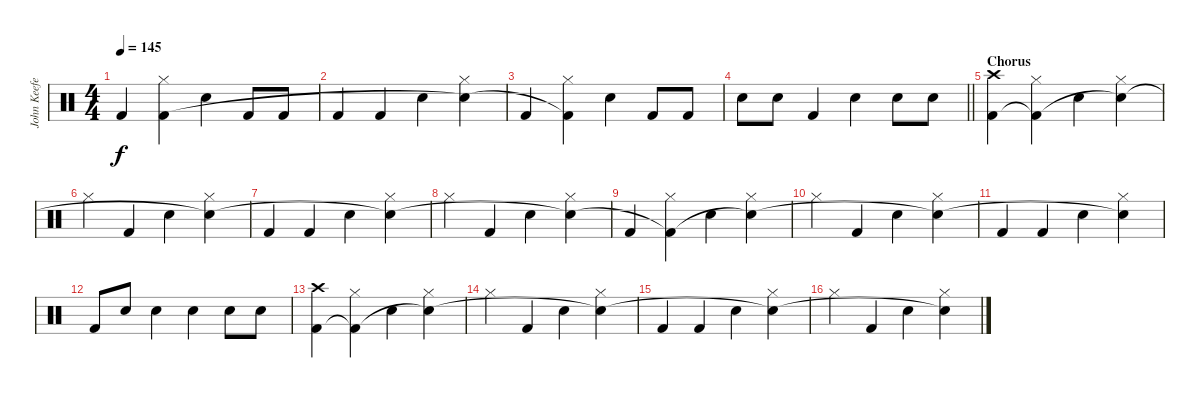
\track ("John Keefe (Percussion)" "John Keefe") {instrument percussion}
\staff {score}
\articulation defaults
\ts (4 4)
\tempo 145
\clef neutral
\ks c "Kick (hit) 2".4{dy f}
("Hi-Hat (closed)" "Kick (hit) 2"{t}).4 "Snare (hit) 2".4 "Kick (hit) 2".8 "Kick (hit) 2".8 |
"Kick (hit) 2".4 "Kick (hit) 2".4 "Snare (hit) 2".4 ("Hi-Hat (closed)" "Snare (hit) 2"{t}).4 |
"Kick (hit) 2".4 ("Hi-Hat (closed)" "Kick (hit) 2"{t}).4 "Snare (hit) 2".4 "Kick (hit) 2".8 "Kick (hit) 2".8 |
\barLineRight lightlight "Snare (hit) 2".8 "Snare (hit) 2".8 "Kick (hit) 2".4 "Snare (hit) 2".4 "Snare (hit) 2".8 "Snare (hit) 2".8
|
\section ("" "Chorus")
("Crash high (hit)" "Kick (hit) 2").4 ("Hi-Hat (closed)" "Kick (hit) 2"{t}).4 "Snare (hit) 2".4 ("Hi-Hat (closed)" "Snare (hit) 2"{t}).4 |
"Hi-Hat (closed)".4 "Kick (hit) 2".4 "Snare (hit) 2".4 ("Hi-Hat (closed)" "Snare (hit) 2"{t}).4 |
"Kick (hit) 2".4 "Kick (hit) 2".4 "Snare (hit) 2".4 ("Hi-Hat (closed)" "Snare (hit) 2"{t}).4 |
"Hi-Hat (closed)".4 "Kick (hit) 2".4 "Snare (hit) 2".4 ("Hi-Hat (closed)" "Snare (hit) 2"{t}).4 |
"Kick (hit) 2".4 ("Hi-Hat (closed)" "Kick (hit) 2"{t}).4 "Snare (hit) 2".4 ("Hi-Hat (closed)" "Snare (hit) 2"{t}).4 |
"Hi-Hat (closed)".4 "Kick (hit) 2".4 "Snare (hit) 2".4 ("Hi-Hat (closed)" "Snare (hit) 2"{t}).4 |
"Kick (hit) 2".4 "Kick (hit) 2".4 "Snare (hit) 2".4 ("Hi-Hat (closed)" "Snare (hit) 2"{t}).4 |
"Kick (hit) 2".8 "Snare (hit) 2".8 "Snare (hit) 2".4 "Snare (hit) 2".4 "Snare (hit) 2".8 "Snare (hit) 2".8 |
("Crash high (hit)" "Kick (hit) 2").4 ("Hi-Hat (closed)" "Kick (hit) 2"{t}).4 "Snare (hit) 2".4 ("Hi-Hat (closed)" "Snare (hit) 2"{t}).4 |
"Hi-Hat (closed)".4 "Kick (hit) 2".4 "Snare (hit) 2".4 ("Hi-Hat (closed)" "Snare (hit) 2"{t}).4 |
"Kick (hit) 2".4 "Kick (hit) 2".4 "Snare (hit) 2".4 ("Hi-Hat (closed)" "Snare (hit) 2"{t}).4 |
"Hi-Hat (closed)".4 "Kick (hit) 2".4 "Snare (hit) 2".4 ("Hi-Hat (closed)" "Snare (hit) 2"{t}).4
